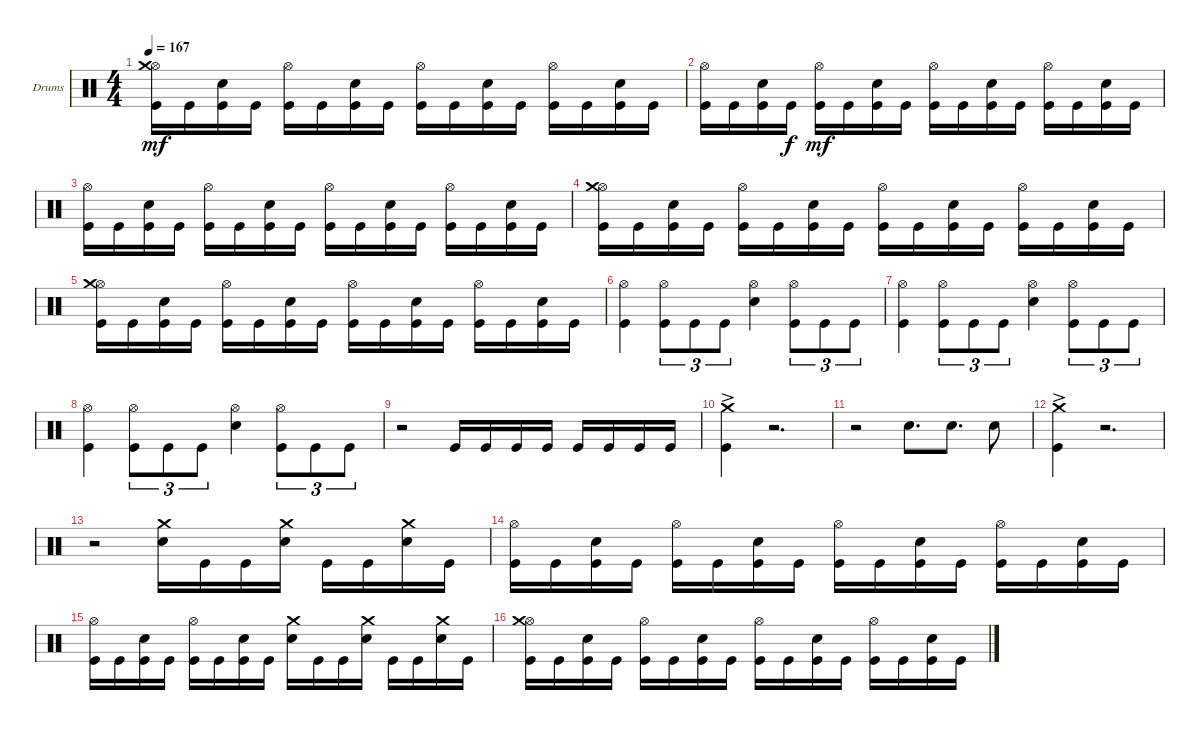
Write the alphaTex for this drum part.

\defaultSystemsLayout 4
\bracketExtendMode groupsimilarinstruments
\firstSystemTrackNameOrientation horizontal
\otherSystemsTrackNameOrientation horizontal
\track ("Drumkit" "Drums") {instrument percussion}
\staff {score}
\articulation defaults
\ts (4 4)
\tempo 167
\clef neutral
\ks c
("Kick (hit)" "Hi-Hat (open)" "Crash medium (hit)").16{dy mf} "Kick (hit)".16 ("Snare (hit) 2" "Kick (hit)").16 "Kick (hit)".16 ("Hi-Hat (open)" "Kick (hit)").16 "Kick (hit)".16 ("Kick (hit)" "Snare (hit) 2").16 "Kick (hit)".16 ("Kick (hit)" "Hi-Hat (open)").16 "Kick (hit)".16 ("Kick (hit)" "Snare (hit) 2").16 "Kick (hit)".16 ("Kick (hit)" "Hi-Hat (open)").16 "Kick (hit)".16 ("Kick (hit)" "Snare (hit) 2").16 "Kick (hit)".16 |
("Kick (hit)" "Hi-Hat (open)").16 "Kick (hit)".16 ("Snare (hit) 2" "Kick (hit)").16 "Kick (hit)".16{dy f} ("Hi-Hat (open)" "Kick (hit)").16{dy mf} "Kick (hit)".16 ("Kick (hit)" "Snare (hit) 2").16 "Kick (hit)".16 ("Kick (hit)" "Hi-Hat (open)").16 "Kick (hit)".16 ("Kick (hit)" "Snare (hit) 2").16 "Kick (hit)".16 ("Kick (hit)" "Hi-Hat (open)").16 "Kick (hit)".16 ("Kick (hit)" "Snare (hit) 2").16 "Kick (hit)".16 |
("Kick (hit)" "Hi-Hat (open)").16 "Kick (hit)".16 ("Snare (hit) 2" "Kick (hit)").16 "Kick (hit)".16 ("Hi-Hat (open)" "Kick (hit)").16 "Kick (hit)".16 ("Snare (hit) 2" "Kick (hit)").16 "Kick (hit)".16 ("Kick (hit)" "Hi-Hat (open)").16 "Kick (hit)".16 ("Kick (hit)" "Snare (hit) 2").16 "Kick (hit)".16 ("Kick (hit)" "Hi-Hat (open)").16 "Kick (hit)".16 ("Kick (hit)" "Snare (hit) 2").16 "Kick (hit)".16 |
("Kick (hit)" "Hi-Hat (open)" "Crash medium (hit)").16 "Kick (hit)".16 ("Snare (hit) 2" "Kick (hit)").16 "Kick (hit)".16 ("Hi-Hat (open)" "Kick (hit)").16 "Kick (hit)".16 ("Kick (hit)" "Snare (hit) 2").16 "Kick (hit)".16 ("Kick (hit)" "Hi-Hat (open)").16 "Kick (hit)".16 ("Kick (hit)" "Snare (hit) 2").16 "Kick (hit)".16 ("Kick (hit)" "Hi-Hat (open)").16 "Kick (hit)".16 ("Kick (hit)" "Snare (hit) 2").16 "Kick (hit)".16 |
("Kick (hit)" "Hi-Hat (open)" "Crash medium (hit)").16 "Kick (hit)".16 ("Snare (hit) 2" "Kick (hit)").16 "Kick (hit)".16 ("Hi-Hat (open)" "Kick (hit)").16 "Kick (hit)".16 ("Kick (hit)" "Snare (hit) 2").16 "Kick (hit)".16 ("Kick (hit)" "Hi-Hat (open)").16 "Kick (hit)".16 ("Kick (hit)" "Snare (hit) 2").16 "Kick (hit)".16 ("Kick (hit)" "Hi-Hat (open)").16 "Kick (hit)".16 ("Kick (hit)" "Snare (hit) 2").16 "Kick (hit)".16 |
("Kick (hit)" "Hi-Hat (open)").4 ("Kick (hit)" "Hi-Hat (open)").8{tu (3 2)} "Kick (hit)".8{tu (3 2)} "Kick (hit)".8{tu (3 2)} ("Hi-Hat (open)" "Snare (hit) 2").4 ("Kick (hit)" "Hi-Hat (open)").8{tu (3 2)} "Kick (hit)".8{tu (3 2)} "Kick (hit)".8{tu (3 2)} |
("Kick (hit)" "Hi-Hat (open)").4 ("Kick (hit)" "Hi-Hat (open)").8{tu (3 2)} "Kick (hit)".8{tu (3 2)} "Kick (hit)".8{tu (3 2)} ("Hi-Hat (open)" "Snare (hit) 2").4 ("Kick (hit)" "Hi-Hat (open)").8{tu (3 2)} "Kick (hit)".8{tu (3 2)} "Kick (hit)".8{tu (3 2)} |
("Kick (hit)" "Hi-Hat (open)").4 ("Kick (hit)" "Hi-Hat (open)").8{tu (3 2)} "Kick (hit)".8{tu (3 2)} "Kick (hit)".8{tu (3 2)} ("Hi-Hat (open)" "Snare (hit) 2").4 ("Kick (hit)" "Hi-Hat (open)").8{tu (3 2)} "Kick (hit)".8{tu (3 2)} "Kick (hit)".8{tu (3 2)} |
r.2 "Kick (hit)".16 "Kick (hit)".16 "Kick (hit)".16 "Kick (hit)".16 "Kick (hit)".16 "Kick (hit)".16 "Kick (hit)".16 "Kick (hit)".16 |
("Kick (hit)"{ac} "Crash medium (hit)").4 r.2{d} |
r.2 "Snare (hit) 2".8{d} "Snare (hit) 2".8{d} "Snare (hit) 2".8 |
("Kick (hit)"{ac} "Crash medium (hit)").4 r.2{d} |
r.2 ("Snare (hit) 2" "Crash medium (hit)").16 "Kick (hit)".16 "Kick (hit)".16 ("Snare (hit) 2" "Crash medium (hit)").16 "Kick (hit)".16 "Kick (hit)".16 ("Snare (hit) 2" "Crash medium (hit)").16 "Kick (hit)".16 |
("Kick (hit)" "Hi-Hat (open)").16 "Kick (hit)".16 ("Snare (hit) 2" "Kick (hit)").16 "Kick (hit)".16 ("Hi-Hat (open)" "Kick (hit)").16 "Kick (hit)".16 ("Kick (hit)" "Snare (hit) 2").16 "Kick (hit)".16 ("Kick (hit)" "Hi-Hat (open)").16 "Kick (hit)".16 ("Kick (hit)" "Snare (hit) 2").16 "Kick (hit)".16 ("Kick (hit)" "Hi-Hat (open)").16 "Kick (hit)".16 ("Kick (hit)" "Snare (hit) 2").16 "Kick (hit)".16 |
("Kick (hit)" "Hi-Hat (open)").16 "Kick (hit)".16 ("Snare (hit) 2" "Kick (hit)").16 "Kick (hit)".16 ("Hi-Hat (open)" "Kick (hit)").16 "Kick (hit)".16 ("Kick (hit)" "Snare (hit) 2").16 "Kick (hit)".16 ("Snare (hit) 2" "Crash medium (hit)").16 "Kick (hit)".16 "Kick (hit)".16 ("Snare (hit) 2" "Crash medium (hit)").16 "Kick (hit)".16 "Kick (hit)".16 ("Snare (hit) 2" "Crash medium (hit)").16 "Kick (hit)".16 |
("Kick (hit)" "Hi-Hat (open)" "Crash medium (hit)").16 "Kick (hit)".16 ("Snare (hit) 2" "Kick (hit)").16 "Kick (hit)".16 ("Hi-Hat (open)" "Kick (hit)").16 "Kick (hit)".16 ("Kick (hit)" "Snare (hit) 2").16 "Kick (hit)".16 ("Kick (hit)" "Hi-Hat (open)").16 "Kick (hit)".16 ("Kick (hit)" "Snare (hit) 2").16 "Kick (hit)".16 ("Kick (hit)" "Hi-Hat (open)").16 "Kick (hit)".16 ("Kick (hit)" "Snare (hit) 2").16 "Kick (hit)".16
